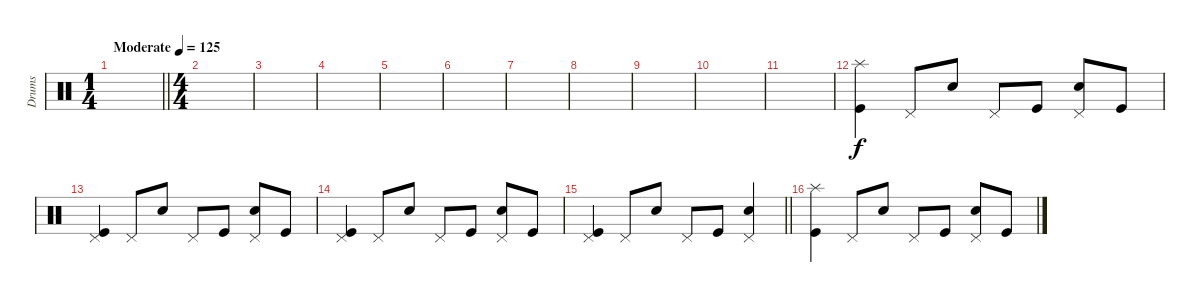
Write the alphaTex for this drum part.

\track ("Drums" "Drums") {instrument percussion}
\staff
\articulation defaults
\ts (1 4)
\tempo (125 "Moderate")
\clef neutral
\barLineRight lightlight
\ks c
|
\ts (4 4)
|
|
|
|
|
|
|
|
|
|
("Splash (hit)" "Kick (hit)").4 "Pedal Hi-Hat (hit)".8 "Electric Snare (hit)".8 "Pedal Hi-Hat (hit)".8 "Kick (hit)".8 ("Pedal Hi-Hat (hit)" "Electric Snare (hit)").8 "Kick (hit)".8 |
("Pedal Hi-Hat (hit)" "Kick (hit)").4 "Pedal Hi-Hat (hit)".8 "Electric Snare (hit)".8 "Pedal Hi-Hat (hit)".8 "Kick (hit)".8 ("Pedal Hi-Hat (hit)" "Electric Snare (hit)").8 "Kick (hit)".8 |
("Pedal Hi-Hat (hit)" "Kick (hit)").4 "Pedal Hi-Hat (hit)".8 "Electric Snare (hit)".8 "Pedal Hi-Hat (hit)".8 "Kick (hit)".8 ("Pedal Hi-Hat (hit)" "Electric Snare (hit)").8 "Kick (hit)".8 |
\barLineRight lightlight
("Pedal Hi-Hat (hit)" "Kick (hit)").4 "Pedal Hi-Hat (hit)".8 "Electric Snare (hit)".8 "Pedal Hi-Hat (hit)".8 "Kick (hit)".8 ("Pedal Hi-Hat (hit)" "Electric Snare (hit)").4 |
("Splash (hit)" "Kick (hit)").4 "Pedal Hi-Hat (hit)".8 "Electric Snare (hit)".8 "Pedal Hi-Hat (hit)".8 "Kick (hit)".8 ("Pedal Hi-Hat (hit)" "Electric Snare (hit)").8 "Kick (hit)".8
